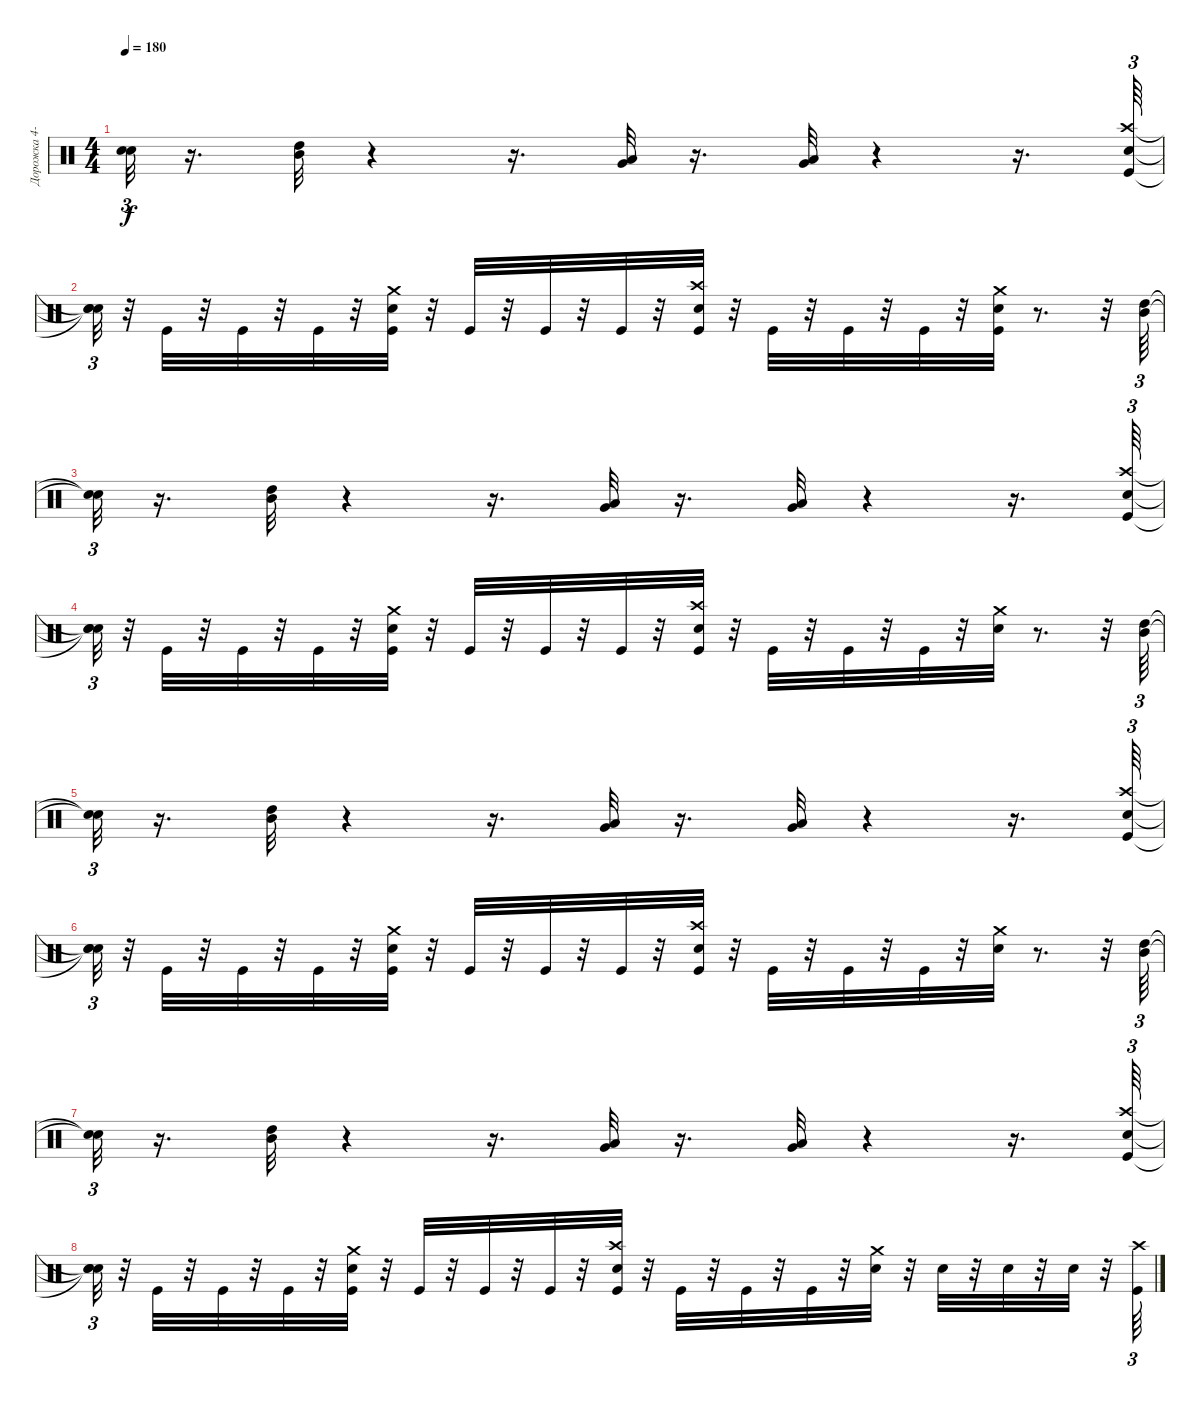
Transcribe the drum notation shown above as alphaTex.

\track ("Дорожка 4-10-11" "Дорожка 4-") {instrument percussion}
\staff {score}
\articulation defaults
\ts (4 4)
\tempo 180
\clef neutral
\ks c
("Snare (hit)"{t} "Snare (hit)"{t}).32{tu (3 2) dy f} r.16{d} ("Mid Tom (hit)" "High Tom (hit)").32 r.4 r.16{d} ("Very Low Tom (hit)" "Low Tom (hit)").32 r.16{d} ("Very Low Tom (hit)" "Low Tom (hit)").32 r.4 r.16{d} ("Crash high (hit)" "Snare (hit) 2" "Kick (hit)").64{tu (3 2)} |
("Snare (hit)"{t} "Snare (hit)"{t} "Snare (hit)"{t}).32{tu (3 2)} r.32 "Kick (hit)".32 r.32 "Kick (hit)".32 r.32 "Kick (hit)".32 r.32 ("Crash medium (hit)" "Snare (hit) 2" "Kick (hit)").32 r.32 "Kick (hit)".32 r.32 "Kick (hit)".32 r.32 "Kick (hit)".32 r.32 ("Snare (hit) 2" "Kick (hit)" "Crash high (hit)").32 r.32 "Kick (hit)".32 r.32 "Kick (hit)".32 r.32 "Kick (hit)".32 r.32 ("Crash medium (hit)" "Snare (hit) 2" "Kick (hit)").32 r.8{d} r.32 ("Mid Tom (hit)" "High Tom (hit)").64{tu (3 2)} |
("Snare (hit)"{t} "Snare (hit)"{t}).32{tu (3 2)} r.16{d} ("Mid Tom (hit)" "High Tom (hit)").32 r.4 r.16{d} ("Very Low Tom (hit)" "Low Tom (hit)").32 r.16{d} ("Very Low Tom (hit)" "Low Tom (hit)").32 r.4 r.16{d} ("Crash high (hit)" "Snare (hit) 2" "Kick (hit)").64{tu (3 2)} |
("Snare (hit)"{t} "Snare (hit)"{t} "Snare (hit)"{t}).32{tu (3 2)} r.32 "Kick (hit)".32 r.32 "Kick (hit)".32 r.32 "Kick (hit)".32 r.32 ("Crash medium (hit)" "Snare (hit) 2" "Kick (hit)").32 r.32 "Kick (hit)".32 r.32 "Kick (hit)".32 r.32 "Kick (hit)".32 r.32 ("Snare (hit) 2" "Kick (hit)" "Crash high (hit)").32 r.32 "Kick (hit)".32 r.32 "Kick (hit)".32 r.32 "Kick (hit)".32 r.32 ("Crash medium (hit)" "Snare (hit) 2").32 r.8{d} r.32 ("Mid Tom (hit)" "High Tom (hit)").64{tu (3 2)} |
("Snare (hit)"{t} "Snare (hit)"{t}).32{tu (3 2)} r.16{d} ("Mid Tom (hit)" "High Tom (hit)").32 r.4 r.16{d} ("Very Low Tom (hit)" "Low Tom (hit)").32 r.16{d} ("Very Low Tom (hit)" "Low Tom (hit)").32 r.4 r.16{d} ("Crash high (hit)" "Snare (hit) 2" "Kick (hit)").64{tu (3 2)} |
("Snare (hit)"{t} "Snare (hit)"{t} "Snare (hit)"{t}).32{tu (3 2)} r.32 "Kick (hit)".32 r.32 "Kick (hit)".32 r.32 "Kick (hit)".32 r.32 ("Crash medium (hit)" "Snare (hit) 2" "Kick (hit)").32 r.32 "Kick (hit)".32 r.32 "Kick (hit)".32 r.32 "Kick (hit)".32 r.32 ("Snare (hit) 2" "Kick (hit)" "Crash high (hit)").32 r.32 "Kick (hit)".32 r.32 "Kick (hit)".32 r.32 "Kick (hit)".32 r.32 ("Crash medium (hit)" "Snare (hit) 2").32 r.8{d} r.32 ("Mid Tom (hit)" "High Tom (hit)").64{tu (3 2)} |
("Snare (hit)"{t} "Snare (hit)"{t}).32{tu (3 2)} r.16{d} ("Mid Tom (hit)" "High Tom (hit)").32 r.4 r.16{d} ("Very Low Tom (hit)" "Low Tom (hit)").32 r.16{d} ("Very Low Tom (hit)" "Low Tom (hit)").32 r.4 r.16{d} ("Crash high (hit)" "Snare (hit) 2" "Kick (hit)").64{tu (3 2)} |
("Snare (hit)"{t} "Snare (hit)"{t} "Snare (hit)"{t}).32{tu (3 2)} r.32 "Kick (hit)".32 r.32 "Kick (hit)".32 r.32 "Kick (hit)".32 r.32 ("Crash medium (hit)" "Snare (hit) 2" "Kick (hit)").32 r.32 "Kick (hit)".32 r.32 "Kick (hit)".32 r.32 "Kick (hit)".32 r.32 ("Snare (hit) 2" "Kick (hit)" "Crash high (hit)").32 r.32 "Kick (hit)".32 r.32 "Kick (hit)".32 r.32 "Kick (hit)".32 r.32 ("Crash medium (hit)" "Snare (hit) 2").32 r.32 "Snare (hit) 2".32 r.32 "Snare (hit) 2".32 r.32 "Snare (hit) 2".32 r.32 ("Crash high (hit)" "Kick (hit)").64{tu (3 2)}
